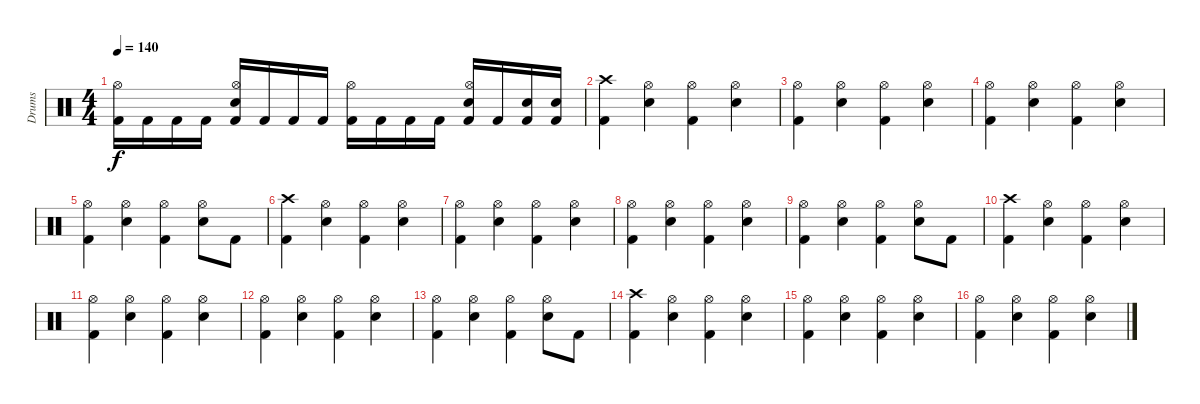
\track ("Drums" "Drums") {instrument percussion}
\staff {score}
\articulation defaults
\ts (4 4)
\tempo 140
\clef neutral
\ks c
("Kick (hit) 2" "Hi-Hat (open)").16{dy f} "Kick (hit) 2".16 "Kick (hit) 2".16 "Kick (hit) 2".16 ("Kick (hit) 2" "Electric Snare (hit)" "Hi-Hat (open)").16 "Kick (hit) 2".16 "Kick (hit) 2".16 "Kick (hit) 2".16 ("Kick (hit) 2" "Hi-Hat (open)").16 "Kick (hit) 2".16 "Kick (hit) 2".16 "Kick (hit) 2".16 ("Kick (hit) 2" "Electric Snare (hit)" "Hi-Hat (open)").16 "Kick (hit) 2".16 ("Kick (hit) 2" "Electric Snare (hit)").16 ("Kick (hit) 2" "Electric Snare (hit)").16 |
("Kick (hit) 2" "Crash high (hit)").4 ("Electric Snare (hit)" "Hi-Hat (open)").4 ("Kick (hit) 2" "Hi-Hat (open)").4 ("Electric Snare (hit)" "Hi-Hat (open)").4 |
("Kick (hit) 2" "Hi-Hat (open)").4 ("Electric Snare (hit)" "Hi-Hat (open)").4 ("Kick (hit) 2" "Hi-Hat (open)").4 ("Electric Snare (hit)" "Hi-Hat (open)").4 |
("Kick (hit) 2" "Hi-Hat (open)").4 ("Electric Snare (hit)" "Hi-Hat (open)").4 ("Kick (hit) 2" "Hi-Hat (open)").4 ("Electric Snare (hit)" "Hi-Hat (open)").4 |
("Kick (hit) 2" "Hi-Hat (open)").4 ("Electric Snare (hit)" "Hi-Hat (open)").4 ("Kick (hit) 2" "Hi-Hat (open)").4 ("Electric Snare (hit)" "Hi-Hat (open)").8 "Kick (hit) 2".8 |
("Kick (hit) 2" "Crash high (hit)").4 ("Electric Snare (hit)" "Hi-Hat (open)").4 ("Kick (hit) 2" "Hi-Hat (open)").4 ("Electric Snare (hit)" "Hi-Hat (open)").4 |
("Kick (hit) 2" "Hi-Hat (open)").4 ("Electric Snare (hit)" "Hi-Hat (open)").4 ("Kick (hit) 2" "Hi-Hat (open)").4 ("Electric Snare (hit)" "Hi-Hat (open)").4 |
("Kick (hit) 2" "Hi-Hat (open)").4 ("Electric Snare (hit)" "Hi-Hat (open)").4 ("Kick (hit) 2" "Hi-Hat (open)").4 ("Electric Snare (hit)" "Hi-Hat (open)").4 |
("Kick (hit) 2" "Hi-Hat (open)").4 ("Electric Snare (hit)" "Hi-Hat (open)").4 ("Kick (hit) 2" "Hi-Hat (open)").4 ("Electric Snare (hit)" "Hi-Hat (open)").8 "Kick (hit) 2".8 |
("Kick (hit) 2" "Crash high (hit)").4 ("Electric Snare (hit)" "Hi-Hat (open)").4 ("Kick (hit) 2" "Hi-Hat (open)").4 ("Electric Snare (hit)" "Hi-Hat (open)").4 |
("Kick (hit) 2" "Hi-Hat (open)").4 ("Electric Snare (hit)" "Hi-Hat (open)").4 ("Kick (hit) 2" "Hi-Hat (open)").4 ("Electric Snare (hit)" "Hi-Hat (open)").4 |
("Kick (hit) 2" "Hi-Hat (open)").4 ("Electric Snare (hit)" "Hi-Hat (open)").4 ("Kick (hit) 2" "Hi-Hat (open)").4 ("Electric Snare (hit)" "Hi-Hat (open)").4 |
("Kick (hit) 2" "Hi-Hat (open)").4 ("Electric Snare (hit)" "Hi-Hat (open)").4 ("Kick (hit) 2" "Hi-Hat (open)").4 ("Electric Snare (hit)" "Hi-Hat (open)").8 "Kick (hit) 2".8 |
("Kick (hit) 2" "Crash high (hit)").4 ("Electric Snare (hit)" "Hi-Hat (open)").4 ("Kick (hit) 2" "Hi-Hat (open)").4 ("Electric Snare (hit)" "Hi-Hat (open)").4 |
("Kick (hit) 2" "Hi-Hat (open)").4 ("Electric Snare (hit)" "Hi-Hat (open)").4 ("Kick (hit) 2" "Hi-Hat (open)").4 ("Electric Snare (hit)" "Hi-Hat (open)").4 |
("Kick (hit) 2" "Hi-Hat (open)").4 ("Electric Snare (hit)" "Hi-Hat (open)").4 ("Kick (hit) 2" "Hi-Hat (open)").4 ("Electric Snare (hit)" "Hi-Hat (open)").4
